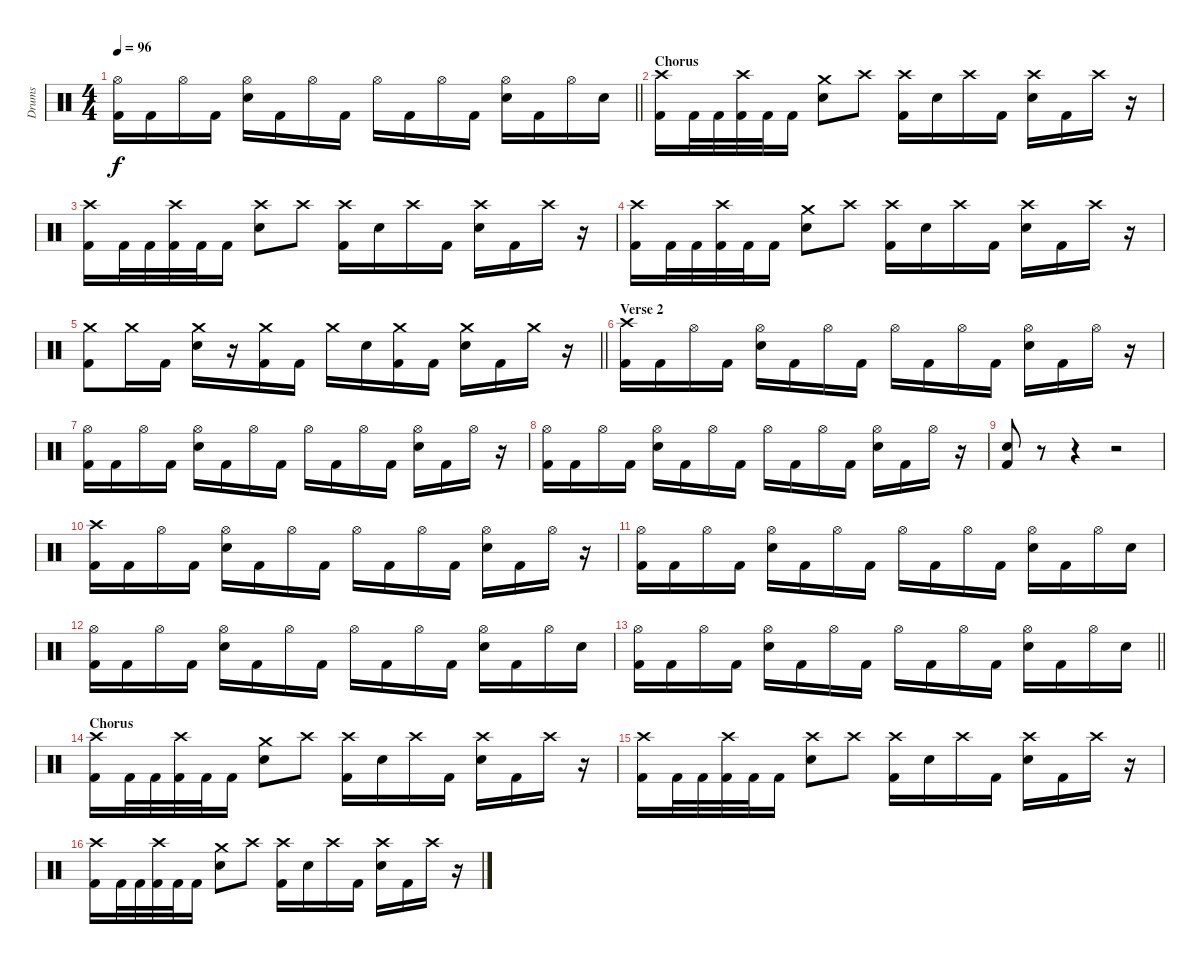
\track ("Drums" "Drums") {instrument percussion}
\staff {score}
\articulation defaults
\ts (4 4)
\tempo 96
\clef neutral
\barLineRight lightlight
\ks c
("Hi-Hat (open)" "Kick (hit) 2").16{dy f} "Kick (hit) 2".16 "Hi-Hat (open)".16 "Kick (hit) 2".16 ("Hi-Hat (open)" "Electric Snare (hit)").16 "Kick (hit) 2".16 "Hi-Hat (open)".16 "Kick (hit) 2".16 "Hi-Hat (open)".16 "Kick (hit) 2".16 "Hi-Hat (open)".16 "Kick (hit) 2".16 ("Hi-Hat (open)" "Electric Snare (hit)").16 "Kick (hit) 2".16 "Hi-Hat (open)".16 "Electric Snare (hit)".16 |
\section ("" "Chorus")
("Crash high (hit)" "Kick (hit) 2").16 "Kick (hit) 2".32 "Kick (hit) 2".32 ("Crash high (hit)" "Kick (hit) 2").32 "Kick (hit) 2".32 "Kick (hit) 2".16 ("Crash medium (hit)" "Electric Snare (hit)").8 "Crash high (hit)".8 ("Crash high (hit)" "Kick (hit) 2").16 "Electric Snare (hit)".16 "Crash high (hit)".16 "Kick (hit) 2".16 ("Crash high (hit)" "Electric Snare (hit)").16 "Kick (hit) 2".16 "Crash high (hit)".16 r.16 |
("Crash high (hit)" "Kick (hit) 2").16 "Kick (hit) 2".32 "Kick (hit) 2".32 ("Crash high (hit)" "Kick (hit) 2").32 "Kick (hit) 2".32 "Kick (hit) 2".16 ("Crash high (hit)" "Electric Snare (hit)").8 "Crash high (hit)".8 ("Crash high (hit)" "Kick (hit) 2").16 "Electric Snare (hit)".16 "Crash high (hit)".16 "Kick (hit) 2".16 ("Crash high (hit)" "Electric Snare (hit)").16 "Kick (hit) 2".16 "Crash high (hit)".16 r.16 |
("Crash high (hit)" "Kick (hit) 2").16 "Kick (hit) 2".32 "Kick (hit) 2".32 ("Crash high (hit)" "Kick (hit) 2").32 "Kick (hit) 2".32 "Kick (hit) 2".16 ("Crash medium (hit)" "Electric Snare (hit)").8 "Crash high (hit)".8 ("Crash high (hit)" "Kick (hit) 2").16 "Electric Snare (hit)".16 "Crash high (hit)".16 "Kick (hit) 2".16 ("Crash high (hit)" "Electric Snare (hit)").16 "Kick (hit) 2".16 "Crash high (hit)".16 r.16 |
\barLineRight lightlight
("Crash medium (hit)" "Kick (hit) 2").8 "Crash medium (hit)".16 "Kick (hit) 2".16 ("Crash medium (hit)" "Electric Snare (hit)").16 r.16 ("Crash medium (hit)" "Kick (hit) 2").16 "Kick (hit) 2".16 "Crash medium (hit)".16 "Electric Snare (hit)".16 ("Crash medium (hit)" "Kick (hit) 2").16 "Kick (hit) 2".16 ("Crash medium (hit)" "Electric Snare (hit)").16 "Kick (hit) 2".16 "Crash medium (hit)".16 r.16 |
\section ("" "Verse 2")
("Crash high (hit)" "Kick (hit) 2").16 "Kick (hit) 2".16 "Hi-Hat (open)".16 "Kick (hit) 2".16 ("Hi-Hat (open)" "Electric Snare (hit)").16 "Kick (hit) 2".16 "Hi-Hat (open)".16 "Kick (hit) 2".16 "Hi-Hat (open)".16 "Kick (hit) 2".16 "Hi-Hat (open)".16 "Kick (hit) 2".16 ("Hi-Hat (open)" "Electric Snare (hit)").16 "Kick (hit) 2".16 "Hi-Hat (open)".16 r.16 |
("Hi-Hat (open)" "Kick (hit) 2").16 "Kick (hit) 2".16 "Hi-Hat (open)".16 "Kick (hit) 2".16 ("Hi-Hat (open)" "Electric Snare (hit)").16 "Kick (hit) 2".16 "Hi-Hat (open)".16 "Kick (hit) 2".16 "Hi-Hat (open)".16 "Kick (hit) 2".16 "Hi-Hat (open)".16 "Kick (hit) 2".16 ("Hi-Hat (open)" "Electric Snare (hit)").16 "Kick (hit) 2".16 "Hi-Hat (open)".16 r.16 |
("Hi-Hat (open)" "Kick (hit) 2").16 "Kick (hit) 2".16 "Hi-Hat (open)".16 "Kick (hit) 2".16 ("Hi-Hat (open)" "Electric Snare (hit)").16 "Kick (hit) 2".16 "Hi-Hat (open)".16 "Kick (hit) 2".16 "Hi-Hat (open)".16 "Kick (hit) 2".16 "Hi-Hat (open)".16 "Kick (hit) 2".16 ("Hi-Hat (open)" "Electric Snare (hit)").16 "Kick (hit) 2".16 "Hi-Hat (open)".16 r.16 |
("Electric Snare (hit)" "Kick (hit) 2").8 r.8 r.4 r.2 |
("Crash high (hit)" "Kick (hit) 2").16 "Kick (hit) 2".16 "Hi-Hat (open)".16 "Kick (hit) 2".16 ("Hi-Hat (open)" "Electric Snare (hit)").16 "Kick (hit) 2".16 "Hi-Hat (open)".16 "Kick (hit) 2".16 "Hi-Hat (open)".16 "Kick (hit) 2".16 "Hi-Hat (open)".16 "Kick (hit) 2".16 ("Hi-Hat (open)" "Electric Snare (hit)").16 "Kick (hit) 2".16 "Hi-Hat (open)".16 r.16 |
("Hi-Hat (open)" "Kick (hit) 2").16 "Kick (hit) 2".16 "Hi-Hat (open)".16 "Kick (hit) 2".16 ("Hi-Hat (open)" "Electric Snare (hit)").16 "Kick (hit) 2".16 "Hi-Hat (open)".16 "Kick (hit) 2".16 "Hi-Hat (open)".16 "Kick (hit) 2".16 "Hi-Hat (open)".16 "Kick (hit) 2".16 ("Hi-Hat (open)" "Electric Snare (hit)").16 "Kick (hit) 2".16 "Hi-Hat (open)".16 "Electric Snare (hit)".16 |
("Hi-Hat (open)" "Kick (hit) 2").16 "Kick (hit) 2".16 "Hi-Hat (open)".16 "Kick (hit) 2".16 ("Hi-Hat (open)" "Electric Snare (hit)").16 "Kick (hit) 2".16 "Hi-Hat (open)".16 "Kick (hit) 2".16 "Hi-Hat (open)".16 "Kick (hit) 2".16 "Hi-Hat (open)".16 "Kick (hit) 2".16 ("Hi-Hat (open)" "Electric Snare (hit)").16 "Kick (hit) 2".16 "Hi-Hat (open)".16 "Electric Snare (hit)".16 |
\barLineRight lightlight
("Hi-Hat (open)" "Kick (hit) 2").16 "Kick (hit) 2".16 "Hi-Hat (open)".16 "Kick (hit) 2".16 ("Hi-Hat (open)" "Electric Snare (hit)").16 "Kick (hit) 2".16 "Hi-Hat (open)".16 "Kick (hit) 2".16 "Hi-Hat (open)".16 "Kick (hit) 2".16 "Hi-Hat (open)".16 "Kick (hit) 2".16 ("Hi-Hat (open)" "Electric Snare (hit)").16 "Kick (hit) 2".16 "Hi-Hat (open)".16 "Electric Snare (hit)".16 |
\section ("" "Chorus")
("Crash high (hit)" "Kick (hit) 2").16 "Kick (hit) 2".32 "Kick (hit) 2".32 ("Crash high (hit)" "Kick (hit) 2").32 "Kick (hit) 2".32 "Kick (hit) 2".16 ("Crash medium (hit)" "Electric Snare (hit)").8 "Crash high (hit)".8 ("Crash high (hit)" "Kick (hit) 2").16 "Electric Snare (hit)".16 "Crash high (hit)".16 "Kick (hit) 2".16 ("Crash high (hit)" "Electric Snare (hit)").16 "Kick (hit) 2".16 "Crash high (hit)".16 r.16 |
("Crash high (hit)" "Kick (hit) 2").16 "Kick (hit) 2".32 "Kick (hit) 2".32 ("Crash high (hit)" "Kick (hit) 2").32 "Kick (hit) 2".32 "Kick (hit) 2".16 ("Crash high (hit)" "Electric Snare (hit)").8 "Crash high (hit)".8 ("Crash high (hit)" "Kick (hit) 2").16 "Electric Snare (hit)".16 "Crash high (hit)".16 "Kick (hit) 2".16 ("Crash high (hit)" "Electric Snare (hit)").16 "Kick (hit) 2".16 "Crash high (hit)".16 r.16 |
("Crash high (hit)" "Kick (hit) 2").16 "Kick (hit) 2".32 "Kick (hit) 2".32 ("Crash high (hit)" "Kick (hit) 2").32 "Kick (hit) 2".32 "Kick (hit) 2".16 ("Crash medium (hit)" "Electric Snare (hit)").8 "Crash high (hit)".8 ("Crash high (hit)" "Kick (hit) 2").16 "Electric Snare (hit)".16 "Crash high (hit)".16 "Kick (hit) 2".16 ("Crash high (hit)" "Electric Snare (hit)").16 "Kick (hit) 2".16 "Crash high (hit)".16 r.16
